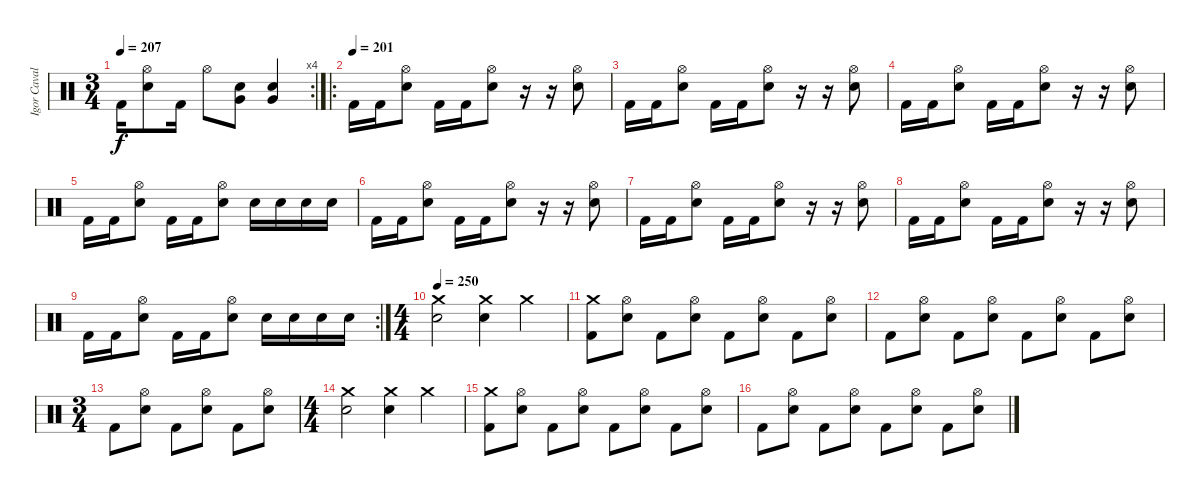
\track ("Igor Cavalera" "Igor Caval") {solo instrument percussion}
\staff {score}
\articulation defaults
\rc 4
\ts (3 4)
\tempo 207
\clef neutral
\ks c "Kick (hit) 2".16{dy f}
("Electric Snare (hit)" "Hi-Hat (open)").8 "Kick (hit) 2".16 "Hi-Hat (open)".8 ("Electric Snare (hit)" "Very Low Tom (hit)").8 ("Electric Snare (hit)" "Very Low Tom (hit)").4 |
\ro
\tempo (201)
"Kick (hit) 2".16 "Kick (hit) 2".16 ("Electric Snare (hit)" "Hi-Hat (open)").8 "Kick (hit) 2".16 "Kick (hit) 2".16 ("Electric Snare (hit)" "Hi-Hat (open)").8 r.16 r.16 ("Electric Snare (hit)" "Hi-Hat (open)").8 |
"Kick (hit) 2".16 "Kick (hit) 2".16 ("Electric Snare (hit)" "Hi-Hat (open)").8 "Kick (hit) 2".16 "Kick (hit) 2".16 ("Electric Snare (hit)" "Hi-Hat (open)").8 r.16 r.16 ("Electric Snare (hit)" "Hi-Hat (open)").8 |
"Kick (hit) 2".16 "Kick (hit) 2".16 ("Electric Snare (hit)" "Hi-Hat (open)").8 "Kick (hit) 2".16 "Kick (hit) 2".16 ("Electric Snare (hit)" "Hi-Hat (open)").8 r.16 r.16 ("Electric Snare (hit)" "Hi-Hat (open)").8 |
"Kick (hit) 2".16 "Kick (hit) 2".16 ("Electric Snare (hit)" "Hi-Hat (open)").8 "Kick (hit) 2".16 "Kick (hit) 2".16 ("Electric Snare (hit)" "Hi-Hat (open)").8 "Electric Snare (hit)".16 "Electric Snare (hit)".16 "Electric Snare (hit)".16 "Electric Snare (hit)".16 |
"Kick (hit) 2".16 "Kick (hit) 2".16 ("Electric Snare (hit)" "Hi-Hat (open)").8 "Kick (hit) 2".16 "Kick (hit) 2".16 ("Electric Snare (hit)" "Hi-Hat (open)").8 r.16 r.16 ("Electric Snare (hit)" "Hi-Hat (open)").8 |
"Kick (hit) 2".16 "Kick (hit) 2".16 ("Electric Snare (hit)" "Hi-Hat (open)").8 "Kick (hit) 2".16 "Kick (hit) 2".16 ("Electric Snare (hit)" "Hi-Hat (open)").8 r.16 r.16 ("Electric Snare (hit)" "Hi-Hat (open)").8 |
"Kick (hit) 2".16 "Kick (hit) 2".16 ("Electric Snare (hit)" "Hi-Hat (open)").8 "Kick (hit) 2".16 "Kick (hit) 2".16 ("Electric Snare (hit)" "Hi-Hat (open)").8 r.16 r.16 ("Electric Snare (hit)" "Hi-Hat (open)").8 |
\rc 2 "Kick (hit) 2".16 "Kick (hit) 2".16
("Electric Snare (hit)" "Hi-Hat (open)").8 "Kick (hit) 2".16 "Kick (hit) 2".16 ("Electric Snare (hit)" "Hi-Hat (open)").8 "Electric Snare (hit)".16 "Electric Snare (hit)".16 "Electric Snare (hit)".16 "Electric Snare (hit)".16 |
\ts (4 4)
\tempo 250
("Crash medium (hit)" "Electric Snare (hit)").2 ("Crash medium (hit)" "Electric Snare (hit)").4 "Crash medium (hit)".4 |
("Kick (hit) 2" "Crash medium (hit)").8 ("Electric Snare (hit)" "Hi-Hat (open)").8 "Kick (hit) 2".8 ("Electric Snare (hit)" "Hi-Hat (open)").8 "Kick (hit) 2".8 ("Electric Snare (hit)" "Hi-Hat (open)").8 "Kick (hit) 2".8 ("Electric Snare (hit)" "Hi-Hat (open)").8 |
"Kick (hit) 2".8 ("Electric Snare (hit)" "Hi-Hat (open)").8 "Kick (hit) 2".8 ("Electric Snare (hit)" "Hi-Hat (open)").8 "Kick (hit) 2".8 ("Electric Snare (hit)" "Hi-Hat (open)").8 "Kick (hit) 2".8 ("Electric Snare (hit)" "Hi-Hat (open)").8 |
\ts (3 4)
"Kick (hit) 2".8 ("Electric Snare (hit)" "Hi-Hat (open)").8 "Kick (hit) 2".8 ("Electric Snare (hit)" "Hi-Hat (open)").8 "Kick (hit) 2".8 ("Electric Snare (hit)" "Hi-Hat (open)").8 |
\ts (4 4)
("Crash medium (hit)" "Electric Snare (hit)").2 ("Crash medium (hit)" "Electric Snare (hit)").4 "Crash medium (hit)".4 |
("Kick (hit) 2" "Crash medium (hit)").8 ("Electric Snare (hit)" "Hi-Hat (open)").8 "Kick (hit) 2".8 ("Electric Snare (hit)" "Hi-Hat (open)").8 "Kick (hit) 2".8 ("Electric Snare (hit)" "Hi-Hat (open)").8 "Kick (hit) 2".8 ("Electric Snare (hit)" "Hi-Hat (open)").8 |
"Kick (hit) 2".8 ("Electric Snare (hit)" "Hi-Hat (open)").8 "Kick (hit) 2".8 ("Electric Snare (hit)" "Hi-Hat (open)").8 "Kick (hit) 2".8 ("Electric Snare (hit)" "Hi-Hat (open)").8 "Kick (hit) 2".8 ("Electric Snare (hit)" "Hi-Hat (open)").8
